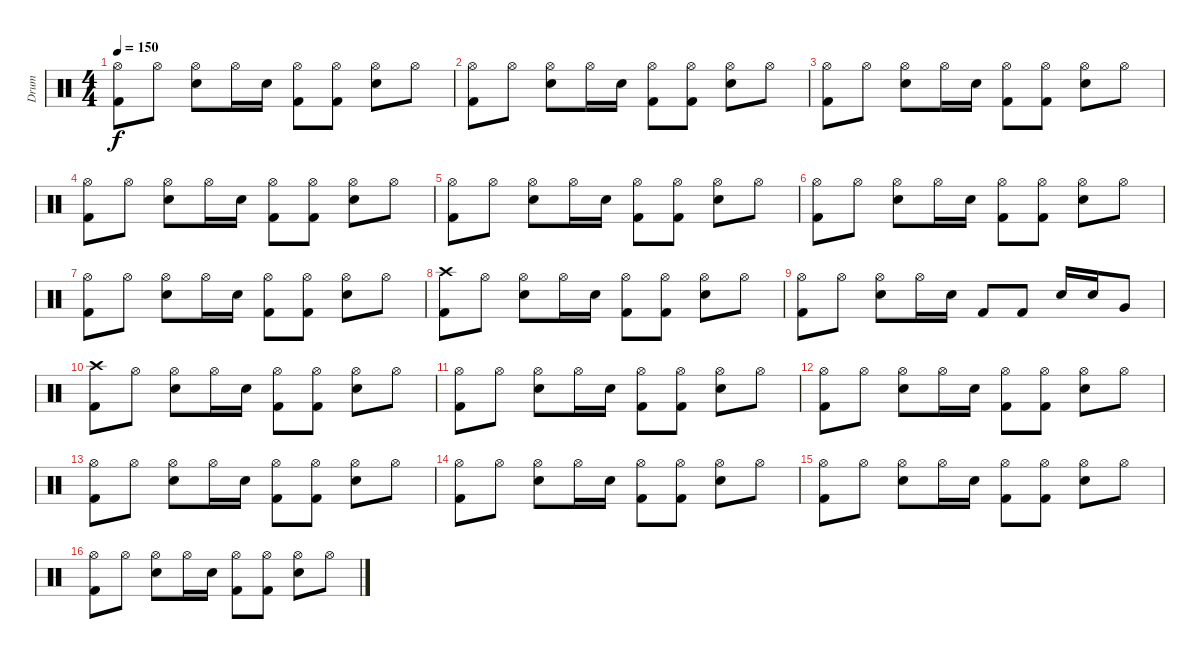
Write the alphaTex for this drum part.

\track ("Drum" "Drum") {instrument percussion}
\staff {score}
\articulation defaults
\ts (4 4)
\tempo 150
\clef neutral
\ks c
("Hi-Hat (open)" "Kick (hit) 2").8{dy f} "Hi-Hat (open)".8 ("Hi-Hat (open)" "Snare (hit) 2").8 "Hi-Hat (open)".16 "Snare (hit) 2".16 ("Hi-Hat (open)" "Kick (hit) 2").8 ("Hi-Hat (open)" "Kick (hit) 2").8 ("Hi-Hat (open)" "Snare (hit) 2").8 "Hi-Hat (open)".8 |
("Hi-Hat (open)" "Kick (hit) 2").8 "Hi-Hat (open)".8 ("Hi-Hat (open)" "Snare (hit) 2").8 "Hi-Hat (open)".16 "Snare (hit) 2".16 ("Hi-Hat (open)" "Kick (hit) 2").8 ("Hi-Hat (open)" "Kick (hit) 2").8 ("Hi-Hat (open)" "Snare (hit) 2").8 "Hi-Hat (open)".8 |
("Hi-Hat (open)" "Kick (hit) 2").8 "Hi-Hat (open)".8 ("Hi-Hat (open)" "Snare (hit) 2").8 "Hi-Hat (open)".16 "Snare (hit) 2".16 ("Hi-Hat (open)" "Kick (hit) 2").8 ("Hi-Hat (open)" "Kick (hit) 2").8 ("Hi-Hat (open)" "Snare (hit) 2").8 "Hi-Hat (open)".8 |
("Hi-Hat (open)" "Kick (hit) 2").8 "Hi-Hat (open)".8 ("Hi-Hat (open)" "Snare (hit) 2").8 "Hi-Hat (open)".16 "Snare (hit) 2".16 ("Hi-Hat (open)" "Kick (hit) 2").8 ("Hi-Hat (open)" "Kick (hit) 2").8 ("Hi-Hat (open)" "Snare (hit) 2").8 "Hi-Hat (open)".8 |
("Hi-Hat (open)" "Kick (hit) 2").8 "Hi-Hat (open)".8 ("Hi-Hat (open)" "Snare (hit) 2").8 "Hi-Hat (open)".16 "Snare (hit) 2".16 ("Hi-Hat (open)" "Kick (hit) 2").8 ("Hi-Hat (open)" "Kick (hit) 2").8 ("Hi-Hat (open)" "Snare (hit) 2").8 "Hi-Hat (open)".8 |
("Hi-Hat (open)" "Kick (hit) 2").8 "Hi-Hat (open)".8 ("Hi-Hat (open)" "Snare (hit) 2").8 "Hi-Hat (open)".16 "Snare (hit) 2".16 ("Hi-Hat (open)" "Kick (hit) 2").8 ("Hi-Hat (open)" "Kick (hit) 2").8 ("Hi-Hat (open)" "Snare (hit) 2").8 "Hi-Hat (open)".8 |
("Hi-Hat (open)" "Kick (hit) 2").8 "Hi-Hat (open)".8 ("Hi-Hat (open)" "Snare (hit) 2").8 "Hi-Hat (open)".16 "Snare (hit) 2".16 ("Hi-Hat (open)" "Kick (hit) 2").8 ("Hi-Hat (open)" "Kick (hit) 2").8 ("Hi-Hat (open)" "Snare (hit) 2").8 "Hi-Hat (open)".8 |
("Crash high (hit)" "Kick (hit) 2").8 "Hi-Hat (open)".8 ("Hi-Hat (open)" "Snare (hit) 2").8 "Hi-Hat (open)".16 "Snare (hit) 2".16 ("Hi-Hat (open)" "Kick (hit) 2").8 ("Hi-Hat (open)" "Kick (hit) 2").8 ("Hi-Hat (open)" "Snare (hit) 2").8 "Hi-Hat (open)".8 |
("Hi-Hat (open)" "Kick (hit) 2").8 "Hi-Hat (open)".8 ("Hi-Hat (open)" "Snare (hit) 2").8 "Hi-Hat (open)".16 "Snare (hit) 2".16 "Kick (hit) 2".8 "Kick (hit) 2".8 "Snare (hit) 2".16 "Snare (hit) 2".16 "Very Low Tom (hit)".8 |
("Crash high (hit)" "Kick (hit) 2").8 "Hi-Hat (open)".8 ("Hi-Hat (open)" "Snare (hit) 2").8 "Hi-Hat (open)".16 "Snare (hit) 2".16 ("Hi-Hat (open)" "Kick (hit) 2").8 ("Hi-Hat (open)" "Kick (hit) 2").8 ("Hi-Hat (open)" "Snare (hit) 2").8 "Hi-Hat (open)".8 |
("Hi-Hat (open)" "Kick (hit) 2").8 "Hi-Hat (open)".8 ("Hi-Hat (open)" "Snare (hit) 2").8 "Hi-Hat (open)".16 "Snare (hit) 2".16 ("Hi-Hat (open)" "Kick (hit) 2").8 ("Hi-Hat (open)" "Kick (hit) 2").8 ("Hi-Hat (open)" "Snare (hit) 2").8 "Hi-Hat (open)".8 |
("Hi-Hat (open)" "Kick (hit) 2").8 "Hi-Hat (open)".8 ("Hi-Hat (open)" "Snare (hit) 2").8 "Hi-Hat (open)".16 "Snare (hit) 2".16 ("Hi-Hat (open)" "Kick (hit) 2").8 ("Hi-Hat (open)" "Kick (hit) 2").8 ("Hi-Hat (open)" "Snare (hit) 2").8 "Hi-Hat (open)".8 |
("Hi-Hat (open)" "Kick (hit) 2").8 "Hi-Hat (open)".8 ("Hi-Hat (open)" "Snare (hit) 2").8 "Hi-Hat (open)".16 "Snare (hit) 2".16 ("Hi-Hat (open)" "Kick (hit) 2").8 ("Hi-Hat (open)" "Kick (hit) 2").8 ("Hi-Hat (open)" "Snare (hit) 2").8 "Hi-Hat (open)".8 |
("Hi-Hat (open)" "Kick (hit) 2").8 "Hi-Hat (open)".8 ("Hi-Hat (open)" "Snare (hit) 2").8 "Hi-Hat (open)".16 "Snare (hit) 2".16 ("Hi-Hat (open)" "Kick (hit) 2").8 ("Hi-Hat (open)" "Kick (hit) 2").8 ("Hi-Hat (open)" "Snare (hit) 2").8 "Hi-Hat (open)".8 |
("Hi-Hat (open)" "Kick (hit) 2").8 "Hi-Hat (open)".8 ("Hi-Hat (open)" "Snare (hit) 2").8 "Hi-Hat (open)".16 "Snare (hit) 2".16 ("Hi-Hat (open)" "Kick (hit) 2").8 ("Hi-Hat (open)" "Kick (hit) 2").8 ("Hi-Hat (open)" "Snare (hit) 2").8 "Hi-Hat (open)".8 |
("Hi-Hat (open)" "Kick (hit) 2").8 "Hi-Hat (open)".8 ("Hi-Hat (open)" "Snare (hit) 2").8 "Hi-Hat (open)".16 "Snare (hit) 2".16 ("Hi-Hat (open)" "Kick (hit) 2").8 ("Hi-Hat (open)" "Kick (hit) 2").8 ("Hi-Hat (open)" "Snare (hit) 2").8 "Hi-Hat (open)".8
